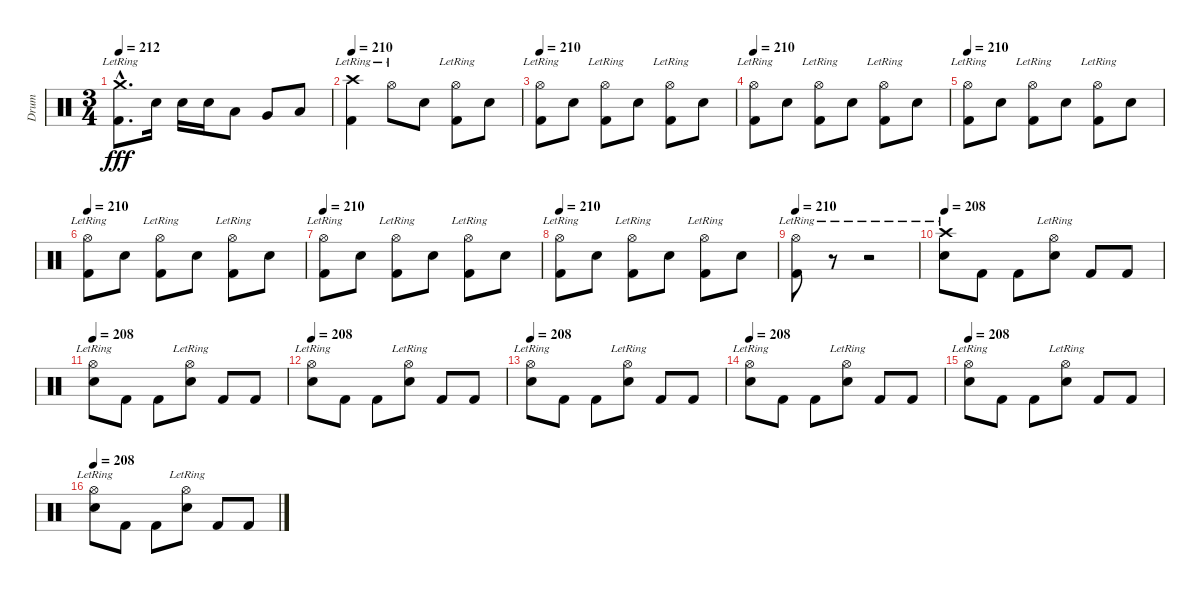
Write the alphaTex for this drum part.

\track ("Drum" "Drum") {instrument percussion}
\staff {score}
\articulation defaults
\ts (3 4)
\tempo 212
\clef neutral
\ks c
("Crash medium (hit)"{hac lr} "Kick (hit) 2"{hac}).8{d dy fff} "Electric Snare (hit)".16 "Electric Snare (hit)".16 "Electric Snare (hit)".16 "Low Tom (hit)".8 "Very Low Tom (hit)".8 "Low Floor Tom (hit)".8 |
\tempo 210
("Crash high (hit)"{lr} "Kick (hit) 2").4 "Hi-Hat (open)"{lr}.8 "Electric Snare (hit)".8 ("Hi-Hat (open)"{lr} "Kick (hit) 2").8 "Electric Snare (hit)".8 |
\tempo 210
("Hi-Hat (open)"{lr} "Kick (hit) 2").8 "Electric Snare (hit)".8 ("Hi-Hat (open)"{lr} "Kick (hit) 2").8 "Electric Snare (hit)".8 ("Hi-Hat (open)"{lr} "Kick (hit) 2").8 "Electric Snare (hit)".8 |
\tempo 210
("Hi-Hat (open)"{lr} "Kick (hit) 2").8 "Electric Snare (hit)".8 ("Hi-Hat (open)"{lr} "Kick (hit) 2").8 "Electric Snare (hit)".8 ("Hi-Hat (open)"{lr} "Kick (hit) 2").8 "Electric Snare (hit)".8 |
\tempo 210
("Hi-Hat (open)"{lr} "Kick (hit) 2").8 "Electric Snare (hit)".8 ("Hi-Hat (open)"{lr} "Kick (hit) 2").8 "Electric Snare (hit)".8 ("Hi-Hat (open)"{lr} "Kick (hit) 2").8 "Electric Snare (hit)".8 |
\tempo 210
("Hi-Hat (open)"{lr} "Kick (hit) 2").8 "Electric Snare (hit)".8 ("Hi-Hat (open)"{lr} "Kick (hit) 2").8 "Electric Snare (hit)".8 ("Hi-Hat (open)"{lr} "Kick (hit) 2").8 "Electric Snare (hit)".8 |
\tempo 210
("Hi-Hat (open)"{lr} "Kick (hit) 2").8 "Electric Snare (hit)".8 ("Hi-Hat (open)"{lr} "Kick (hit) 2").8 "Electric Snare (hit)".8 ("Hi-Hat (open)"{lr} "Kick (hit) 2").8 "Electric Snare (hit)".8 |
\tempo 210
("Hi-Hat (open)"{lr} "Kick (hit) 2").8 "Electric Snare (hit)".8 ("Hi-Hat (open)"{lr} "Kick (hit) 2").8 "Electric Snare (hit)".8 ("Hi-Hat (open)"{lr} "Kick (hit) 2").8 "Electric Snare (hit)".8 |
\tempo 210
("Hi-Hat (open)"{lr} "Kick (hit) 2").8 r.8 r.2 |
\tempo 208
("Crash high (hit)"{lr} "Electric Snare (hit)").8 "Kick (hit) 2".8 "Kick (hit) 2".8 ("Hi-Hat (open)"{lr} "Electric Snare (hit)").8 "Kick (hit) 2".8 "Kick (hit) 2".8 |
\tempo 208
("Hi-Hat (open)"{lr} "Electric Snare (hit)").8 "Kick (hit) 2".8 "Kick (hit) 2".8 ("Hi-Hat (open)"{lr} "Electric Snare (hit)").8 "Kick (hit) 2".8 "Kick (hit) 2".8 |
\tempo 208
("Hi-Hat (open)"{lr} "Electric Snare (hit)").8 "Kick (hit) 2".8 "Kick (hit) 2".8 ("Hi-Hat (open)"{lr} "Electric Snare (hit)").8 "Kick (hit) 2".8 "Kick (hit) 2".8 |
\tempo 208
("Hi-Hat (open)"{lr} "Electric Snare (hit)").8 "Kick (hit) 2".8 "Kick (hit) 2".8 ("Hi-Hat (open)"{lr} "Electric Snare (hit)").8 "Kick (hit) 2".8 "Kick (hit) 2".8 |
\tempo 208
("Hi-Hat (open)"{lr} "Electric Snare (hit)").8 "Kick (hit) 2".8 "Kick (hit) 2".8 ("Hi-Hat (open)"{lr} "Electric Snare (hit)").8 "Kick (hit) 2".8 "Kick (hit) 2".8 |
\tempo 208
("Hi-Hat (open)"{lr} "Electric Snare (hit)").8 "Kick (hit) 2".8 "Kick (hit) 2".8 ("Hi-Hat (open)"{lr} "Electric Snare (hit)").8 "Kick (hit) 2".8 "Kick (hit) 2".8 |
\tempo 208
("Hi-Hat (open)"{lr} "Electric Snare (hit)").8 "Kick (hit) 2".8 "Kick (hit) 2".8 ("Hi-Hat (open)"{lr} "Electric Snare (hit)").8 "Kick (hit) 2".8 "Kick (hit) 2".8
